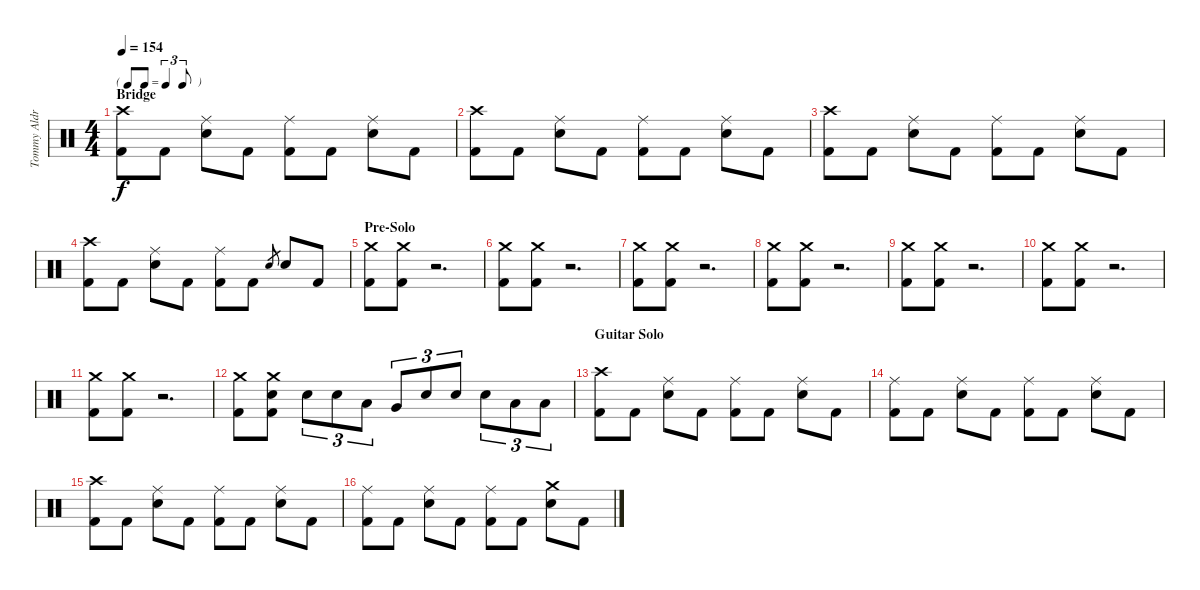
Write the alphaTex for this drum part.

\track ("Tommy Aldridge (Drums)" "Tommy Aldr") {instrument percussion}
\staff {score}
\articulation defaults
\ts (4 4)
\tf triplet8th
\section ("" "Bridge")
\tempo 154
\clef neutral
\ks c
("Crash high (hit)" "Kick (hit) 2").8{dy f} "Kick (hit) 2".8 ("Ride (middle)" "Electric Snare (hit)").8 "Kick (hit) 2".8 ("Ride (middle)" "Kick (hit) 2").8 "Kick (hit) 2".8 ("Ride (middle)" "Electric Snare (hit)").8 "Kick (hit) 2".8 |
("Crash high (hit)" "Kick (hit) 2").8 "Kick (hit) 2".8 ("Ride (middle)" "Electric Snare (hit)").8 "Kick (hit) 2".8 ("Ride (middle)" "Kick (hit) 2").8 "Kick (hit) 2".8 ("Ride (middle)" "Electric Snare (hit)").8 "Kick (hit) 2".8 |
("Crash high (hit)" "Kick (hit) 2").8 "Kick (hit) 2".8 ("Ride (middle)" "Electric Snare (hit)").8 "Kick (hit) 2".8 ("Ride (middle)" "Kick (hit) 2").8 "Kick (hit) 2".8 ("Ride (middle)" "Electric Snare (hit)").8 "Kick (hit) 2".8 |
("Crash high (hit)" "Kick (hit) 2").8 "Kick (hit) 2".8 ("Ride (middle)" "Electric Snare (hit)").8 "Kick (hit) 2".8 ("Ride (middle)" "Kick (hit) 2").8 "Kick (hit) 2".8 "Electric Snare (hit)".8{gr} "Electric Snare (hit)".8 "Kick (hit) 2".8 |
\section ("" "Pre-Solo")
("Crash medium (hit)" "Kick (hit) 2").8 ("Crash medium (hit)" "Kick (hit) 2").8 r.2{d} |
("Crash medium (hit)" "Kick (hit) 2").8 ("Crash medium (hit)" "Kick (hit) 2").8 r.2{d} |
("Crash medium (hit)" "Kick (hit) 2").8 ("Crash medium (hit)" "Kick (hit) 2").8 r.2{d} |
("Crash medium (hit)" "Kick (hit) 2").8 ("Crash medium (hit)" "Kick (hit) 2").8 r.2{d} |
("Crash medium (hit)" "Kick (hit) 2").8 ("Crash medium (hit)" "Kick (hit) 2").8 r.2{d} |
("Crash medium (hit)" "Kick (hit) 2").8 ("Crash medium (hit)" "Kick (hit) 2").8 r.2{d} |
("Crash medium (hit)" "Kick (hit) 2").8 ("Crash medium (hit)" "Kick (hit) 2").8 r.2{d} |
("Crash medium (hit)" "Kick (hit) 2").8 ("Crash medium (hit)" "Electric Snare (hit)" "Kick (hit) 2").8 "Electric Snare (hit)".8{tu (3 2)} "Electric Snare (hit)".8{tu (3 2)} "Low Tom (hit)".8{tu (3 2)} "Very Low Tom (hit)".8{tu (3 2)} "Electric Snare (hit)".8{tu (3 2)} "Electric Snare (hit)".8{tu (3 2)} "Electric Snare (hit)".8{tu (3 2)} "Low Tom (hit)".8{tu (3 2)} "Low Tom (hit)".8{tu (3 2)} |
\section ("" "Guitar Solo")
("Crash high (hit)" "Kick (hit) 2").8 "Kick (hit) 2".8 ("Ride (middle)" "Electric Snare (hit)").8 "Kick (hit) 2".8 ("Ride (middle)" "Kick (hit) 2").8 "Kick (hit) 2".8 ("Ride (middle)" "Electric Snare (hit)").8 "Kick (hit) 2".8 |
("Ride (middle)" "Kick (hit) 2").8 "Kick (hit) 2".8 ("Ride (middle)" "Electric Snare (hit)").8 "Kick (hit) 2".8 ("Ride (middle)" "Kick (hit) 2").8 "Kick (hit) 2".8 ("Ride (middle)" "Electric Snare (hit)").8 "Kick (hit) 2".8 |
("Crash high (hit)" "Kick (hit) 2").8 "Kick (hit) 2".8 ("Ride (middle)" "Electric Snare (hit)").8 "Kick (hit) 2".8 ("Ride (middle)" "Kick (hit) 2").8 "Kick (hit) 2".8 ("Ride (middle)" "Electric Snare (hit)").8 "Kick (hit) 2".8 |
("Ride (middle)" "Kick (hit) 2").8 "Kick (hit) 2".8 ("Ride (middle)" "Electric Snare (hit)").8 "Kick (hit) 2".8 ("Ride (middle)" "Kick (hit) 2").8 "Kick (hit) 2".8 ("Crash medium (hit)" "Electric Snare (hit)").8 "Kick (hit) 2".8
